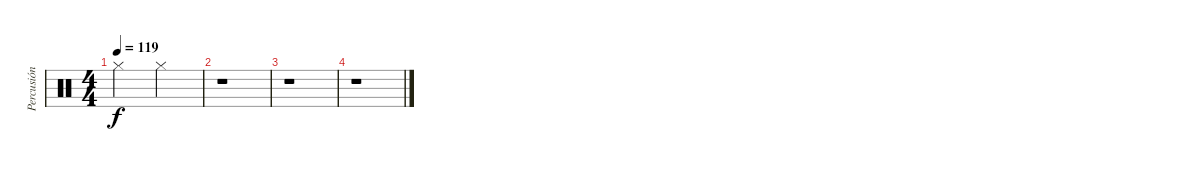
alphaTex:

\track ("Percusión" "Percusión") {instrument percussion}
\staff {score}
\articulation defaults
\ts (4 4)
\tempo 119
\clef neutral
\ks c "Hi-Hat (closed)".2{dy f} "Hi-Hat (closed)".2
|
r.1 |
r.1 |
r.1
